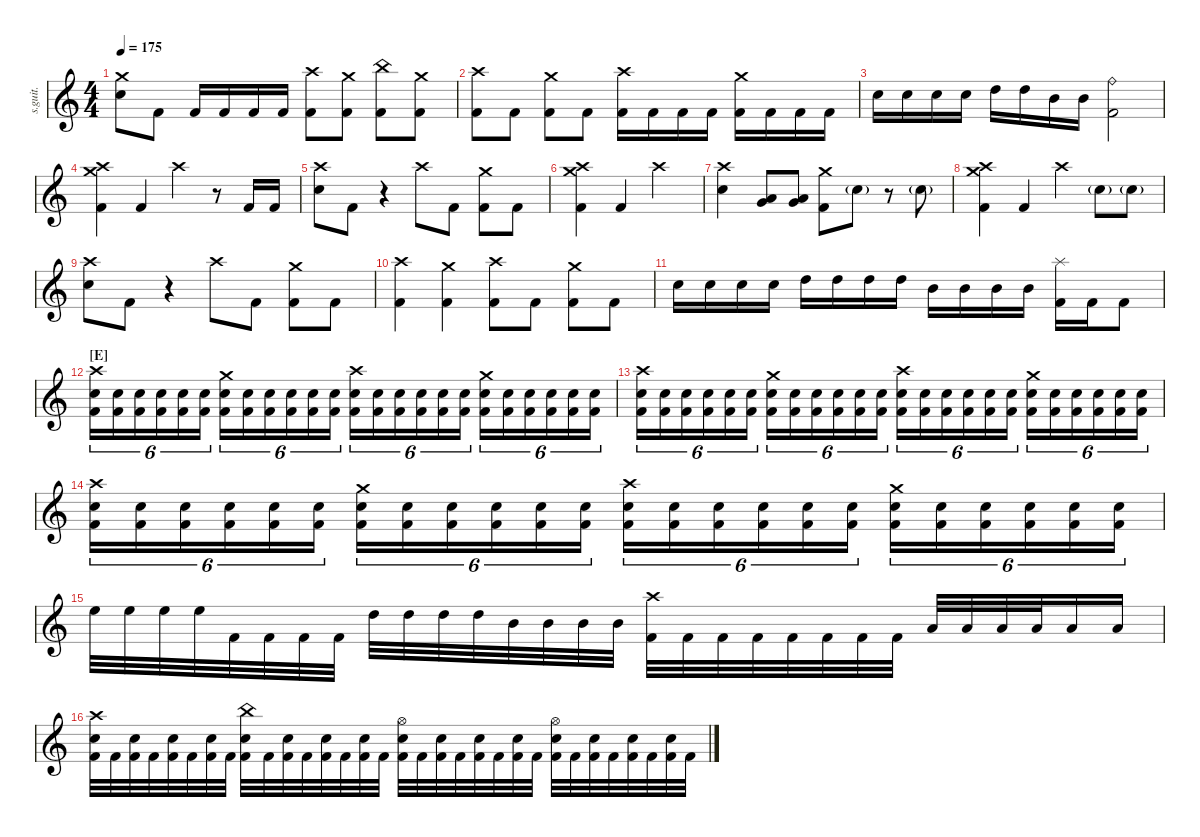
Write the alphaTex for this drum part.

\defaultSystemsLayout 4
\hideDynamics
\bracketExtendMode nobrackets
\track ("" "s.guit.") {instrument percussion}
\staff {score}
\articulation defaults
\ts (4 4)
\tempo 175
\clef g2
\ks c
("Crash medium (hit)" "Snare (hit) 2").8{dy ff} "Kick (hit) 2".8 "Kick (hit) 2".16 "Kick (hit) 2".16 "Kick (hit) 2".16 "Kick (hit) 2".16 ("Crash high (hit)" "Kick (hit) 2").8 ("Crash medium (hit)" "Kick (hit) 2").8 ("China (hit)" "Kick (hit) 2").8 ("Crash medium (hit)" "Kick (hit) 2").8 |
("Crash high (hit)" "Kick (hit) 2").8 "Kick (hit) 2".8 ("Crash medium (hit)" "Kick (hit) 2").8 "Kick (hit) 2".8 ("Crash high (hit)" "Kick (hit) 2").16 "Kick (hit) 2".16 "Kick (hit) 2".16 "Kick (hit) 2".16 ("Crash medium (hit)" "Kick (hit) 2").16 "Kick (hit) 2".16 "Kick (hit) 2".16 "Kick (hit) 2".16 |
"Snare (hit) 2".16 "Snare (hit) 2".16 "Snare (hit) 2".16 "Snare (hit) 2".16 "High Tom (hit)".16 "High Tom (hit)".16 "Mid Tom (hit)".16 "Mid Tom (hit)".16 ("Ride (bell)" "Kick (hit) 2").2 |
("Crash high (hit)" "Crash medium (hit)" "Kick (hit) 2").4 "Kick (hit) 2".4 "Crash high (hit)".4 r.8 "Kick (hit) 2".16 "Kick (hit) 2".16 |
("Crash high (hit)" "Snare (hit) 2").8 "Kick (hit) 2".8 r.4 "Crash high (hit)".8 "Kick (hit) 2".8 ("Crash medium (hit)" "Kick (hit) 2").8 "Kick (hit) 2".8 |
("Crash high (hit)" "Crash medium (hit)" "Kick (hit) 2").4 "Kick (hit) 2".4 "Crash high (hit)".2 |
("Crash high (hit)" "Snare (hit) 2").4 ("Low Tom (hit)" "Very Low Tom (hit)").8 ("Low Tom (hit)" "Very Low Tom (hit)").8 ("Crash medium (hit)" "Kick (hit) 2").8 "Snare (hit) 2"{g}.8 r.8 "Snare (hit) 2"{g}.8 |
("Crash high (hit)" "Crash medium (hit)" "Kick (hit) 2").4 "Kick (hit) 2".4 "Crash high (hit)".4 "Snare (hit) 2"{g}.8 "Snare (hit) 2"{g}.8 |
("Crash high (hit)" "Snare (hit) 2").8 "Kick (hit) 2".8 r.4 "Crash high (hit)".8 "Kick (hit) 2".8 ("Crash medium (hit)" "Kick (hit) 2").8 "Kick (hit) 2".8 |
("Crash high (hit)" "Kick (hit) 2").4 ("Crash medium (hit)" "Kick (hit) 2").4 ("Crash high (hit)" "Kick (hit) 2").8 "Kick (hit) 2".8 ("Crash medium (hit)" "Kick (hit) 2").8 "Kick (hit) 2".8 |
"Snare (hit) 2".16 "Snare (hit) 2".16 "Snare (hit) 2".16 "Snare (hit) 2".16 "High Tom (hit)".16 "High Tom (hit)".16 "High Tom (hit)".16 "High Tom (hit)".16 "Mid Tom (hit)".16 "Mid Tom (hit)".16 "Mid Tom (hit)".16 "Mid Tom (hit)".16 ("Splash (hit)" "Kick (hit) 2").16 "Kick (hit) 2".16 "Kick (hit) 2".8 |
\section ("E" "")
("Crash high (hit)" "Snare (hit) 2" "Kick (hit) 2").16{tu (6 4)} ("Snare (hit) 2" "Kick (hit) 2").16{tu (6 4)} ("Snare (hit) 2" "Kick (hit) 2").16{tu (6 4)} ("Snare (hit) 2" "Kick (hit) 2").16{tu (6 4)} ("Snare (hit) 2" "Kick (hit) 2").16{tu (6 4)} ("Snare (hit) 2" "Kick (hit) 2").16{tu (6 4)} ("Crash medium (hit)" "Snare (hit) 2" "Kick (hit) 2").16{tu (6 4)} ("Snare (hit) 2" "Kick (hit) 2").16{tu (6 4)} ("Snare (hit) 2" "Kick (hit) 2").16{tu (6 4)} ("Snare (hit) 2" "Kick (hit) 2").16{tu (6 4)} ("Snare (hit) 2" "Kick (hit) 2").16{tu (6 4)} ("Snare (hit) 2" "Kick (hit) 2").16{tu (6 4)} ("Crash high (hit)" "Snare (hit) 2" "Kick (hit) 2").16{tu (6 4)} ("Snare (hit) 2" "Kick (hit) 2").16{tu (6 4)} ("Snare (hit) 2" "Kick (hit) 2").16{tu (6 4)} ("Snare (hit) 2" "Kick (hit) 2").16{tu (6 4)} ("Snare (hit) 2" "Kick (hit) 2").16{tu (6 4)} ("Snare (hit) 2" "Kick (hit) 2").16{tu (6 4)} ("Crash medium (hit)" "Snare (hit) 2" "Kick (hit) 2").16{tu (6 4)} ("Snare (hit) 2" "Kick (hit) 2").16{tu (6 4)} ("Snare (hit) 2" "Kick (hit) 2").16{tu (6 4)} ("Snare (hit) 2" "Kick (hit) 2").16{tu (6 4)} ("Snare (hit) 2" "Kick (hit) 2").16{tu (6 4)} ("Snare (hit) 2" "Kick (hit) 2").16{tu (6 4)} |
("Crash high (hit)" "Snare (hit) 2" "Kick (hit) 2").16{tu (6 4)} ("Snare (hit) 2" "Kick (hit) 2").16{tu (6 4)} ("Snare (hit) 2" "Kick (hit) 2").16{tu (6 4)} ("Snare (hit) 2" "Kick (hit) 2").16{tu (6 4)} ("Snare (hit) 2" "Kick (hit) 2").16{tu (6 4)} ("Snare (hit) 2" "Kick (hit) 2").16{tu (6 4)} ("Crash medium (hit)" "Snare (hit) 2" "Kick (hit) 2").16{tu (6 4)} ("Snare (hit) 2" "Kick (hit) 2").16{tu (6 4)} ("Snare (hit) 2" "Kick (hit) 2").16{tu (6 4)} ("Snare (hit) 2" "Kick (hit) 2").16{tu (6 4)} ("Snare (hit) 2" "Kick (hit) 2").16{tu (6 4)} ("Snare (hit) 2" "Kick (hit) 2").16{tu (6 4)} ("Crash high (hit)" "Snare (hit) 2" "Kick (hit) 2").16{tu (6 4)} ("Snare (hit) 2" "Kick (hit) 2").16{tu (6 4)} ("Snare (hit) 2" "Kick (hit) 2").16{tu (6 4)} ("Snare (hit) 2" "Kick (hit) 2").16{tu (6 4)} ("Snare (hit) 2" "Kick (hit) 2").16{tu (6 4)} ("Snare (hit) 2" "Kick (hit) 2").16{tu (6 4)} ("Crash medium (hit)" "Snare (hit) 2" "Kick (hit) 2").16{tu (6 4)} ("Snare (hit) 2" "Kick (hit) 2").16{tu (6 4)} ("Snare (hit) 2" "Kick (hit) 2").16{tu (6 4)} ("Snare (hit) 2" "Kick (hit) 2").16{tu (6 4)} ("Snare (hit) 2" "Kick (hit) 2").16{tu (6 4)} ("Snare (hit) 2" "Kick (hit) 2").16{tu (6 4)} |
("Crash high (hit)" "Snare (hit) 2" "Kick (hit) 2").16{tu (6 4)} ("Snare (hit) 2" "Kick (hit) 2").16{tu (6 4)} ("Snare (hit) 2" "Kick (hit) 2").16{tu (6 4)} ("Snare (hit) 2" "Kick (hit) 2").16{tu (6 4)} ("Snare (hit) 2" "Kick (hit) 2").16{tu (6 4)} ("Snare (hit) 2" "Kick (hit) 2").16{tu (6 4)} ("Crash medium (hit)" "Snare (hit) 2" "Kick (hit) 2").16{tu (6 4)} ("Snare (hit) 2" "Kick (hit) 2").16{tu (6 4)} ("Snare (hit) 2" "Kick (hit) 2").16{tu (6 4)} ("Snare (hit) 2" "Kick (hit) 2").16{tu (6 4)} ("Snare (hit) 2" "Kick (hit) 2").16{tu (6 4)} ("Snare (hit) 2" "Kick (hit) 2").16{tu (6 4)} ("Crash high (hit)" "Snare (hit) 2" "Kick (hit) 2").16{tu (6 4)} ("Snare (hit) 2" "Kick (hit) 2").16{tu (6 4)} ("Snare (hit) 2" "Kick (hit) 2").16{tu (6 4)} ("Snare (hit) 2" "Kick (hit) 2").16{tu (6 4)} ("Snare (hit) 2" "Kick (hit) 2").16{tu (6 4)} ("Snare (hit) 2" "Kick (hit) 2").16{tu (6 4)} ("Crash medium (hit)" "Snare (hit) 2" "Kick (hit) 2").16{tu (6 4)} ("Snare (hit) 2" "Kick (hit) 2").16{tu (6 4)} ("Snare (hit) 2" "Kick (hit) 2").16{tu (6 4)} ("Snare (hit) 2" "Kick (hit) 2").16{tu (6 4)} ("Snare (hit) 2" "Kick (hit) 2").16{tu (6 4)} ("Snare (hit) 2" "Kick (hit) 2").16{tu (6 4)} |
"High Floor Tom (hit)".32 "High Floor Tom (hit)".32 "High Floor Tom (hit)".32 "High Floor Tom (hit)".32 "Kick (hit) 2".32 "Kick (hit) 2".32 "Kick (hit) 2".32 "Kick (hit) 2".32 "High Tom (hit)".32 "High Tom (hit)".32 "High Tom (hit)".32 "High Tom (hit)".32 "Mid Tom (hit)".32 "Mid Tom (hit)".32 "Mid Tom (hit)".32 "Mid Tom (hit)".32 ("Crash high (hit)" "Kick (hit) 2").32 "Kick (hit) 2".32 "Kick (hit) 2".32 "Kick (hit) 2".32 "Kick (hit) 2".32 "Kick (hit) 2".32 "Kick (hit) 2".32 "Kick (hit) 2".32 "Low Tom (hit)".32 "Low Tom (hit)".32 "Low Tom (hit)".32 "Low Tom (hit)".32 "Low Tom (hit)".16 "Low Tom (hit)".16 |
("Crash high (hit)" "Snare (hit) 2" "Kick (hit) 2").32 "Kick (hit) 2".32 ("Snare (hit) 2" "Kick (hit) 2").32 "Kick (hit) 2".32 ("Snare (hit) 2" "Kick (hit) 2").32 "Kick (hit) 2".32 ("Snare (hit) 2" "Kick (hit) 2").32 "Kick (hit) 2".32 ("China (hit)" "Snare (hit) 2" "Kick (hit) 2").32 "Kick (hit) 2".32 ("Snare (hit) 2" "Kick (hit) 2").32 "Kick (hit) 2".32 ("Snare (hit) 2" "Kick (hit) 2").32 "Kick (hit) 2".32 ("Snare (hit) 2" "Kick (hit) 2").32 "Kick (hit) 2".32 ("Hi-Hat (open)" "Snare (hit) 2" "Kick (hit) 2").32 "Kick (hit) 2".32 ("Snare (hit) 2" "Kick (hit) 2").32 "Kick (hit) 2".32 ("Snare (hit) 2" "Kick (hit) 2").32 "Kick (hit) 2".32 ("Snare (hit) 2" "Kick (hit) 2").32 "Kick (hit) 2".32 ("Hi-Hat (open)" "Snare (hit) 2" "Kick (hit) 2").32 "Kick (hit) 2".32 ("Snare (hit) 2" "Kick (hit) 2").32 "Kick (hit) 2".32 ("Snare (hit) 2" "Kick (hit) 2").32 "Kick (hit) 2".32 ("Snare (hit) 2" "Kick (hit) 2").32 "Kick (hit) 2".32
